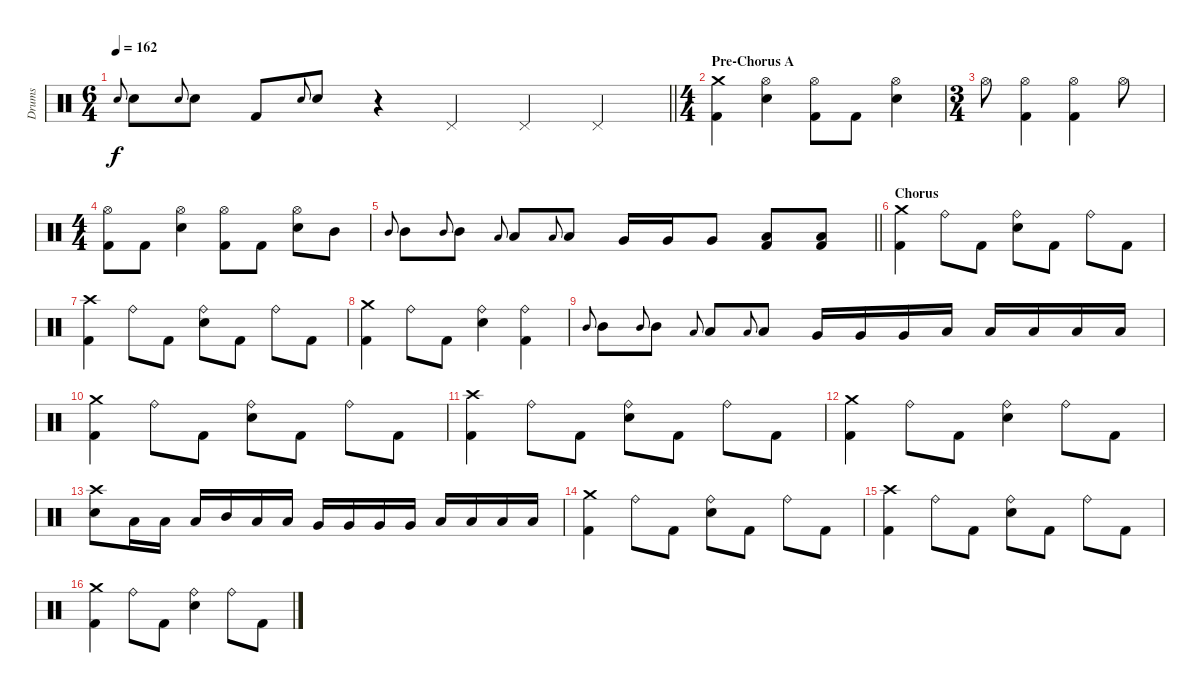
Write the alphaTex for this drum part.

\track ("Drums" "Drums") {instrument percussion}
\staff {score}
\articulation defaults
\ts (6 4)
\tempo 162
\clef neutral
\barLineRight lightlight
\ks c "Snare (hit) 2".8{gr onbeat dy f} "Snare (hit) 2".8 "Snare (hit) 2".8{gr onbeat} "Snare (hit) 2".8 "Kick (hit) 2".8 "Snare (hit) 2".8{gr onbeat} "Snare (hit) 2".8
r.4 "Pedal Hi-Hat (hit)".4 "Pedal Hi-Hat (hit)".4 "Pedal Hi-Hat (hit)".4 |
\ts (4 4)
\section ("" "Pre-Chorus A")
("Crash medium (hit)" "Kick (hit) 2").4 ("Hi-Hat (open)" "Snare (hit) 2").4 ("Hi-Hat (open)" "Kick (hit) 2").8 "Kick (hit) 2".8 ("Hi-Hat (open)" "Snare (hit) 2").4 |
\ts (3 4)
"Hi-Hat (open)".8 ("Hi-Hat (open)" "Kick (hit) 2").4 ("Hi-Hat (open)" "Kick (hit) 2").4 "Hi-Hat (open)".8 |
\ts (4 4)
("Hi-Hat (open)" "Kick (hit) 2").8 "Kick (hit) 2".8 ("Hi-Hat (open)" "Snare (hit) 2").4 ("Hi-Hat (open)" "Kick (hit) 2").8 "Kick (hit) 2".8 ("Hi-Hat (open)" "Snare (hit) 2").8 "Mid Tom (hit)".8 |
\barLineRight lightlight "Mid Tom (hit)".8{gr onbeat} "Mid Tom (hit)".8 "Mid Tom (hit)".8{gr onbeat} "Mid Tom (hit)".8 "Low Tom (hit)".8{gr onbeat} "Low Tom (hit)".8 "Low Tom (hit)".8{gr onbeat} "Low Tom (hit)".8 "Very Low Tom (hit)".16 "Very Low Tom (hit)".16 "Very Low Tom (hit)".8
("Low Floor Tom (hit)" "Kick (hit) 2").8 ("Low Floor Tom (hit)" "Kick (hit) 2").8 |
\section ("" "Chorus")
("Crash medium (hit)" "Kick (hit) 2").4 "Ride (bell)".8 "Kick (hit) 2".8 ("Ride (bell)" "Snare (hit) 2").8 "Kick (hit) 2".8 "Ride (bell)".8 "Kick (hit) 2".8 |
("Crash high (hit)" "Kick (hit) 2").4 "Ride (bell)".8 "Kick (hit) 2".8 ("Ride (bell)" "Snare (hit) 2").8 "Kick (hit) 2".8 "Ride (bell)".8 "Kick (hit) 2".8 |
("Crash medium (hit)" "Kick (hit) 2").4 "Ride (bell)".8 "Kick (hit) 2".8 ("Ride (bell)" "Snare (hit) 2").4 ("Ride (bell)" "Kick (hit) 2").4 |
"Mid Tom (hit)".8{gr onbeat} "Mid Tom (hit)".8 "Mid Tom (hit)".8{gr onbeat} "Mid Tom (hit)".8 "Low Tom (hit)".8{gr onbeat} "Low Tom (hit)".8 "Low Tom (hit)".8{gr onbeat} "Low Tom (hit)".8 "Very Low Tom (hit)".16 "Very Low Tom (hit)".16 "Very Low Tom (hit)".16 "Low Floor Tom (hit)".16 "Low Floor Tom (hit)".16 "Low Floor Tom (hit)".16 "Low Floor Tom (hit)".16 "Low Floor Tom (hit)".16 |
("Crash medium (hit)" "Kick (hit) 2").4 "Ride (bell)".8 "Kick (hit) 2".8 ("Ride (bell)" "Snare (hit) 2").8 "Kick (hit) 2".8 "Ride (bell)".8 "Kick (hit) 2".8 |
("Crash high (hit)" "Kick (hit) 2").4 "Ride (bell)".8 "Kick (hit) 2".8 ("Ride (bell)" "Snare (hit) 2").8 "Kick (hit) 2".8 "Ride (bell)".8 "Kick (hit) 2".8 |
("Crash medium (hit)" "Kick (hit) 2").4 "Ride (bell)".8 "Kick (hit) 2".8 ("Ride (bell)" "Snare (hit) 2").4 "Ride (bell)".8 "Kick (hit) 2".8 |
("Crash high (hit)" "Snare (hit) 2").8 "Low Tom (hit)".16 "Low Tom (hit)".16 "Low Tom (hit)".16 "Mid Tom (hit)".16 "Low Tom (hit)".16 "Low Tom (hit)".16 "Very Low Tom (hit)".16 "Very Low Tom (hit)".16 "Very Low Tom (hit)".16 "Very Low Tom (hit)".16 "Low Floor Tom (hit)".16 "Low Floor Tom (hit)".16 "Low Floor Tom (hit)".16 "Low Floor Tom (hit)".16 |
("Crash medium (hit)" "Kick (hit) 2").4 "Ride (bell)".8 "Kick (hit) 2".8 ("Ride (bell)" "Snare (hit) 2").8 "Kick (hit) 2".8 "Ride (bell)".8 "Kick (hit) 2".8 |
("Crash high (hit)" "Kick (hit) 2").4 "Ride (bell)".8 "Kick (hit) 2".8 ("Ride (bell)" "Snare (hit) 2").8 "Kick (hit) 2".8 "Ride (bell)".8 "Kick (hit) 2".8 |
("Crash medium (hit)" "Kick (hit) 2").4 "Ride (bell)".8 "Kick (hit) 2".8 ("Ride (bell)" "Snare (hit) 2").4 "Ride (bell)".8 "Kick (hit) 2".8
